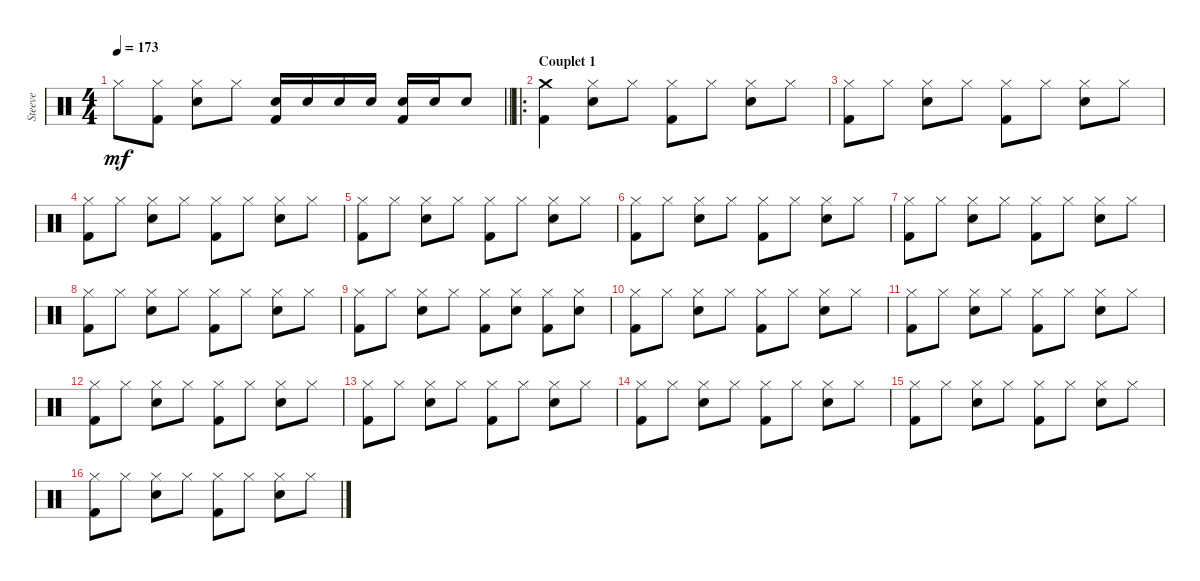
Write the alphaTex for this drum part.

\track ("Steeve" "Steeve") {instrument percussion}
\staff {score}
\articulation defaults
\ts (4 4)
\tempo 173
\clef neutral
\barLineRight lightlight
\ks c "Hi-Hat (closed)".8{dy mf}
("Hi-Hat (closed)" "Kick (hit) 2").8 ("Hi-Hat (closed)" "Electric Snare (hit)").8 "Hi-Hat (closed)".8 ("Electric Snare (hit)" "Kick (hit) 2").16 "Electric Snare (hit)".16 "Electric Snare (hit)".16 "Electric Snare (hit)".16 ("Electric Snare (hit)" "Kick (hit) 2").16 "Electric Snare (hit)".16 "Electric Snare (hit)".8 |
\ro
\section ("" "Couplet 1")
("Crash medium (hit)" "Kick (hit) 2").4 ("Hi-Hat (closed)" "Electric Snare (hit)").8 "Hi-Hat (closed)".8 ("Hi-Hat (closed)" "Kick (hit) 2").8 "Hi-Hat (closed)".8 ("Hi-Hat (closed)" "Electric Snare (hit)").8 "Hi-Hat (closed)".8 |
("Hi-Hat (closed)" "Kick (hit) 2").8 "Hi-Hat (closed)".8 ("Hi-Hat (closed)" "Electric Snare (hit)").8 "Hi-Hat (closed)".8 ("Hi-Hat (closed)" "Kick (hit) 2").8 "Hi-Hat (closed)".8 ("Hi-Hat (closed)" "Electric Snare (hit)").8 "Hi-Hat (closed)".8 |
("Hi-Hat (closed)" "Kick (hit) 2").8 "Hi-Hat (closed)".8 ("Hi-Hat (closed)" "Electric Snare (hit)").8 "Hi-Hat (closed)".8 ("Hi-Hat (closed)" "Kick (hit) 2").8 "Hi-Hat (closed)".8 ("Hi-Hat (closed)" "Electric Snare (hit)").8 "Hi-Hat (closed)".8 |
("Hi-Hat (closed)" "Kick (hit) 2").8 "Hi-Hat (closed)".8 ("Hi-Hat (closed)" "Electric Snare (hit)").8 "Hi-Hat (closed)".8 ("Hi-Hat (closed)" "Kick (hit) 2").8 "Hi-Hat (closed)".8 ("Hi-Hat (closed)" "Electric Snare (hit)").8 "Hi-Hat (closed)".8 |
("Hi-Hat (closed)" "Kick (hit) 2").8 "Hi-Hat (closed)".8 ("Hi-Hat (closed)" "Electric Snare (hit)").8 "Hi-Hat (closed)".8 ("Hi-Hat (closed)" "Kick (hit) 2").8 "Hi-Hat (closed)".8 ("Hi-Hat (closed)" "Electric Snare (hit)").8 "Hi-Hat (closed)".8 |
("Hi-Hat (closed)" "Kick (hit) 2").8 "Hi-Hat (closed)".8 ("Hi-Hat (closed)" "Electric Snare (hit)").8 "Hi-Hat (closed)".8 ("Hi-Hat (closed)" "Kick (hit) 2").8 "Hi-Hat (closed)".8 ("Hi-Hat (closed)" "Electric Snare (hit)").8 "Hi-Hat (closed)".8 |
("Hi-Hat (closed)" "Kick (hit) 2").8 "Hi-Hat (closed)".8 ("Hi-Hat (closed)" "Electric Snare (hit)").8 "Hi-Hat (closed)".8 ("Hi-Hat (closed)" "Kick (hit) 2").8 "Hi-Hat (closed)".8 ("Hi-Hat (closed)" "Electric Snare (hit)").8 "Hi-Hat (closed)".8 |
("Hi-Hat (closed)" "Kick (hit) 2").8 "Hi-Hat (closed)".8 ("Hi-Hat (closed)" "Electric Snare (hit)").8 "Hi-Hat (closed)".8 ("Hi-Hat (closed)" "Kick (hit) 2").8 ("Hi-Hat (closed)" "Electric Snare (hit)").8 ("Hi-Hat (closed)" "Kick (hit) 2").8 ("Hi-Hat (closed)" "Electric Snare (hit)").8 |
("Hi-Hat (closed)" "Kick (hit) 2").8 "Hi-Hat (closed)".8 ("Hi-Hat (closed)" "Electric Snare (hit)").8 "Hi-Hat (closed)".8 ("Hi-Hat (closed)" "Kick (hit) 2").8 "Hi-Hat (closed)".8 ("Hi-Hat (closed)" "Electric Snare (hit)").8 "Hi-Hat (closed)".8 |
("Hi-Hat (closed)" "Kick (hit) 2").8 "Hi-Hat (closed)".8 ("Hi-Hat (closed)" "Electric Snare (hit)").8 "Hi-Hat (closed)".8 ("Hi-Hat (closed)" "Kick (hit) 2").8 "Hi-Hat (closed)".8 ("Hi-Hat (closed)" "Electric Snare (hit)").8 "Hi-Hat (closed)".8 |
("Hi-Hat (closed)" "Kick (hit) 2").8 "Hi-Hat (closed)".8 ("Hi-Hat (closed)" "Electric Snare (hit)").8 "Hi-Hat (closed)".8 ("Hi-Hat (closed)" "Kick (hit) 2").8 "Hi-Hat (closed)".8 ("Hi-Hat (closed)" "Electric Snare (hit)").8 "Hi-Hat (closed)".8 |
("Hi-Hat (closed)" "Kick (hit) 2").8 "Hi-Hat (closed)".8 ("Hi-Hat (closed)" "Electric Snare (hit)").8 "Hi-Hat (closed)".8 ("Hi-Hat (closed)" "Kick (hit) 2").8 "Hi-Hat (closed)".8 ("Hi-Hat (closed)" "Electric Snare (hit)").8 "Hi-Hat (closed)".8 |
("Hi-Hat (closed)" "Kick (hit) 2").8 "Hi-Hat (closed)".8 ("Hi-Hat (closed)" "Electric Snare (hit)").8 "Hi-Hat (closed)".8 ("Hi-Hat (closed)" "Kick (hit) 2").8 "Hi-Hat (closed)".8 ("Hi-Hat (closed)" "Electric Snare (hit)").8 "Hi-Hat (closed)".8 |
("Hi-Hat (closed)" "Kick (hit) 2").8 "Hi-Hat (closed)".8 ("Hi-Hat (closed)" "Electric Snare (hit)").8 "Hi-Hat (closed)".8 ("Hi-Hat (closed)" "Kick (hit) 2").8 "Hi-Hat (closed)".8 ("Hi-Hat (closed)" "Electric Snare (hit)").8 "Hi-Hat (closed)".8 |
("Hi-Hat (closed)" "Kick (hit) 2").8 "Hi-Hat (closed)".8 ("Hi-Hat (closed)" "Electric Snare (hit)").8 "Hi-Hat (closed)".8 ("Hi-Hat (closed)" "Kick (hit) 2").8 "Hi-Hat (closed)".8 ("Hi-Hat (closed)" "Electric Snare (hit)").8 "Hi-Hat (closed)".8
